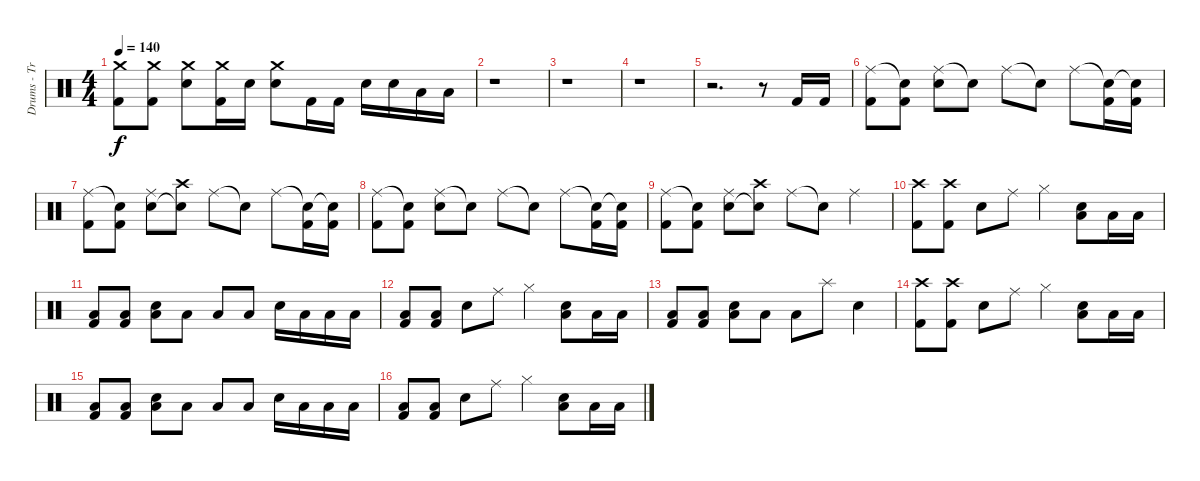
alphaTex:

\track ("Drums - Travis Barker" "Drums - Tr") {instrument percussion}
\staff {score}
\articulation defaults
\ts (4 4)
\tempo 140
\clef neutral
\ks c
("Crash medium (hit)" "Kick (hit) 2").8{dy f} ("Crash medium (hit)" "Kick (hit) 2").8 ("Crash medium (hit)" "Snare (hit) 2").8 ("Crash medium (hit)" "Kick (hit) 2").16 "Snare (hit) 2".16 ("Crash medium (hit)" "Snare (hit) 2").8 "Kick (hit) 2".16 "Kick (hit) 2".16 "Snare (hit) 2".16 "Snare (hit) 2".16 "Low Tom (hit)".16 "Low Tom (hit)".16 |
r.1 |
r.1 |
r.1 |
r.2{d} r.8 "Kick (hit) 2".16 "Kick (hit) 2".16 |
("Ride (middle)" "Kick (hit) 2").8 ("Snare (hit)"{t} "Kick (hit) 2").8 ("Ride (middle)" "Snare (hit) 2").8 "Snare (hit)"{t}.8 "Ride (middle)".8 "Snare (hit)"{t}.8 "Ride (middle)".8 ("Snare (hit)"{t} "Kick (hit) 2").16 ("Snare (hit)"{t} "Kick (hit) 2").16 |
("Ride (middle)" "Kick (hit) 2").8 ("Snare (hit)"{t} "Kick (hit) 2").8 ("Ride (middle)" "Snare (hit) 2").8 ("Crash high (hit)" "Snare (hit)"{t}).8 "Ride (middle)".8 "Snare (hit)"{t}.8 "Ride (middle)".8 ("Snare (hit)"{t} "Kick (hit) 2").16 ("Snare (hit)"{t} "Kick (hit) 2").16 |
("Ride (middle)" "Kick (hit) 2").8 ("Snare (hit)"{t} "Kick (hit) 2").8 ("Ride (middle)" "Snare (hit) 2").8 "Snare (hit)"{t}.8 "Ride (middle)".8 "Snare (hit)"{t}.8 "Ride (middle)".8 ("Snare (hit)"{t} "Kick (hit) 2").16 ("Snare (hit)"{t} "Kick (hit) 2").16 |
("Ride (middle)" "Kick (hit) 2").8 ("Snare (hit)"{t} "Kick (hit) 2").8 ("Ride (middle)" "Snare (hit) 2").8 ("Crash high (hit)" "Snare (hit)"{t}).8 "Ride (middle)".8 "Snare (hit)"{t}.8 "Ride (middle)".4 |
("Crash high (hit)" "Kick (hit) 2").8 ("Crash high (hit)" "Kick (hit) 2").8 "Snare (hit) 2".8 "Ride (middle)".8 "Hi-Hat (closed)".4 ("Low Floor Tom (hit)" "Snare (hit) 2").8 "Low Floor Tom (hit)".16 "Low Floor Tom (hit)".16 |
("Low Floor Tom (hit)" "Kick (hit) 2").8 ("Low Floor Tom (hit)" "Kick (hit) 2").8 ("Low Floor Tom (hit)" "Snare (hit) 2").8 "Low Floor Tom (hit)".8 "Low Floor Tom (hit)".8 "Low Floor Tom (hit)".8 "Snare (hit) 2".16 "Low Tom (hit)".16 "Low Floor Tom (hit)".16 "Low Floor Tom (hit)".16 |
("Low Floor Tom (hit)" "Kick (hit) 2").8 ("Low Floor Tom (hit)" "Kick (hit) 2").8 "Snare (hit) 2".8 "Ride (middle)".8 "Hi-Hat (closed)".4 ("Low Floor Tom (hit)" "Snare (hit) 2").8 "Low Floor Tom (hit)".16 "Low Floor Tom (hit)".16 |
("Low Floor Tom (hit)" "Kick (hit) 2").8 ("Low Floor Tom (hit)" "Kick (hit) 2").8 ("Low Floor Tom (hit)" "Snare (hit) 2").8 "Low Floor Tom (hit)".8 "Low Floor Tom (hit)".8 "Splash (hit)".8 "Snare (hit) 2".4 |
("Crash high (hit)" "Kick (hit) 2").8 ("Crash high (hit)" "Kick (hit) 2").8 "Snare (hit) 2".8 "Ride (middle)".8 "Hi-Hat (closed)".4 ("Low Floor Tom (hit)" "Snare (hit) 2").8 "Low Floor Tom (hit)".16 "Low Floor Tom (hit)".16 |
("Low Floor Tom (hit)" "Kick (hit) 2").8 ("Low Floor Tom (hit)" "Kick (hit) 2").8 ("Low Floor Tom (hit)" "Snare (hit) 2").8 "Low Floor Tom (hit)".8 "Low Floor Tom (hit)".8 "Low Floor Tom (hit)".8 "Snare (hit) 2".16 "Low Tom (hit)".16 "Low Floor Tom (hit)".16 "Low Floor Tom (hit)".16 |
("Low Floor Tom (hit)" "Kick (hit) 2").8 ("Low Floor Tom (hit)" "Kick (hit) 2").8 "Snare (hit) 2".8 "Ride (middle)".8 "Hi-Hat (closed)".4 ("Low Floor Tom (hit)" "Snare (hit) 2").8 "Low Floor Tom (hit)".16 "Low Floor Tom (hit)".16
